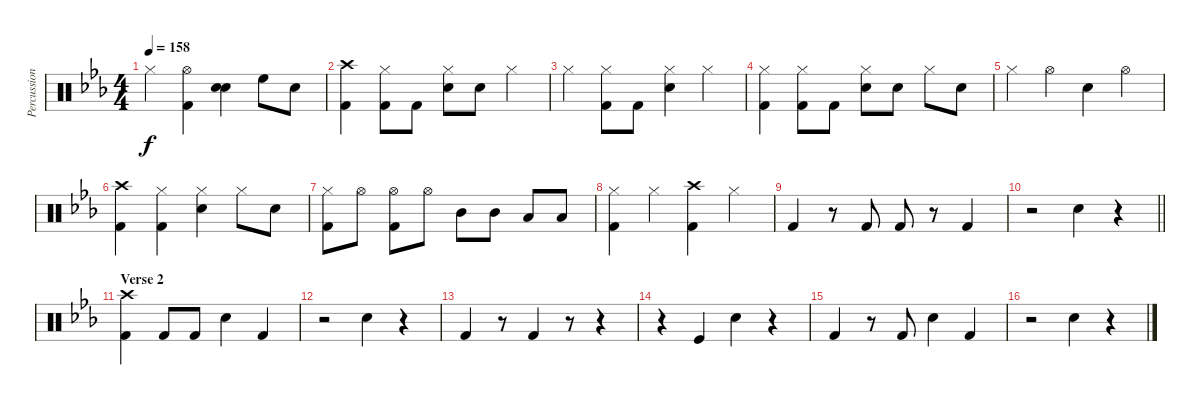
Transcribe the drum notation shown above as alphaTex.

\track ("Percussion" "Percussion") {instrument percussion}
\staff {score}
\articulation defaults
\ts (4 4)
\tempo 158
\clef neutral
\ks eb "Hi-Hat (closed)".4{dy f}
("Hi-Hat (open)" "Kick (hit) 2").4 ("Snare (hit) 2" "Snare (hit) 2").4 "High Floor Tom (hit)".8 "Snare (hit) 2".8 |
("Crash high (hit)" "Kick (hit) 2").4 ("Hi-Hat (closed)" "Kick (hit) 2").8 "Kick (hit) 2".8 ("Hi-Hat (closed)" "Snare (hit) 2").8 "Snare (hit) 2".8 "Hi-Hat (closed)".4 |
"Hi-Hat (closed)".4 ("Hi-Hat (closed)" "Kick (hit) 2").8 "Kick (hit) 2".8 ("Hi-Hat (closed)" "Snare (hit) 2").4 "Hi-Hat (closed)".4 |
("Hi-Hat (closed)" "Kick (hit) 2").4 ("Hi-Hat (closed)" "Kick (hit) 2").8 "Kick (hit) 2".8 ("Hi-Hat (closed)" "Snare (hit) 2").8 "Snare (hit) 2".8 "Hi-Hat (closed)".8 "Snare (hit) 2".8 |
"Hi-Hat (closed)".4 "Hi-Hat (open)".4 "Snare (hit) 2".4 "Hi-Hat (open)".4 |
("Crash high (hit)" "Kick (hit) 2").4 ("Hi-Hat (closed)" "Kick (hit) 2").4 ("Hi-Hat (closed)" "Snare (hit) 2").4 "Hi-Hat (closed)".8 "Snare (hit) 2".8 |
("Hi-Hat (closed)" "Kick (hit) 2").8 "Hi-Hat (open)".8 ("Hi-Hat (open)" "Kick (hit) 2").8 "Hi-Hat (open)".8 "Mid Tom (hit)".8 "Mid Tom (hit)".8 "Low Tom (hit)".8 "Low Tom (hit)".8 |
("Hi-Hat (closed)" "Kick (hit) 2").4 "Hi-Hat (closed)".4 ("Crash high (hit)" "Kick (hit) 2").4 "Hi-Hat (closed)".4 |
"Kick (hit) 2".4 r.8 "Kick (hit) 2".8 "Kick (hit) 2".8 r.8 "Kick (hit) 2".4 |
\barLineRight lightlight
r.2 "Snare (hit) 2".4 r.4 |
\section ("" "Verse 2")
("Kick (hit) 2" "Crash high (hit)").4 "Kick (hit) 2".8 "Kick (hit) 2".8 "Snare (hit) 2".4 "Kick (hit) 2".4 |
r.2 "Snare (hit) 2".4 r.4 |
"Kick (hit) 2".4 r.8 "Kick (hit) 2".4 r.8 r.4 |
r.4 "Kick (hit)".4 "Snare (hit) 2".4 r.4 |
"Kick (hit) 2".4 r.8 "Kick (hit) 2".8 "Snare (hit) 2".4 "Kick (hit) 2".4 |
r.2 "Snare (hit) 2".4 r.4
